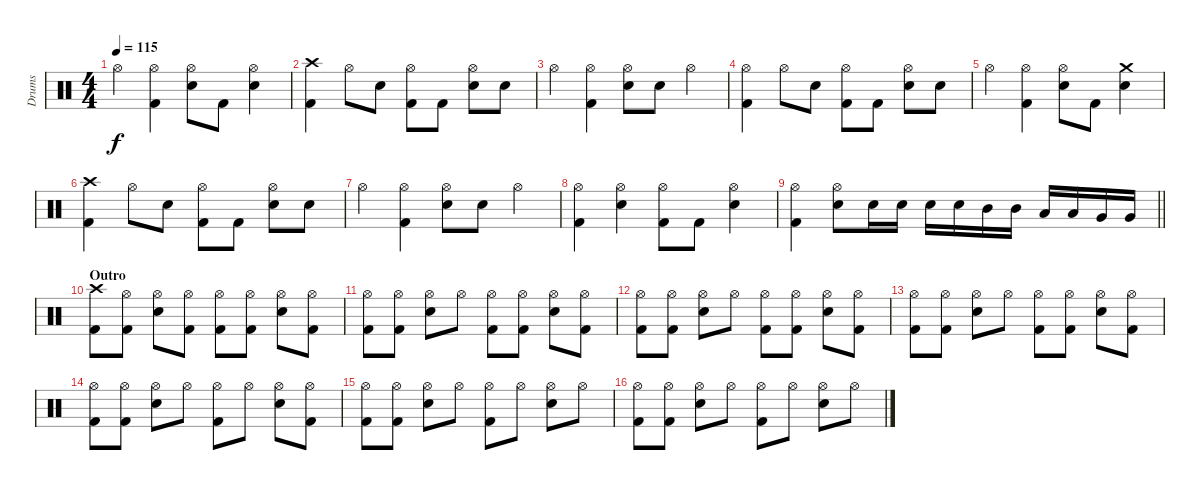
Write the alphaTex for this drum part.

\track ("Drums" "Drums") {instrument percussion}
\staff {score}
\articulation defaults
\ts (4 4)
\tempo 115
\clef neutral
\ks c "Hi-Hat (open)".4{dy f}
("Hi-Hat (open)" "Kick (hit) 2").4 ("Hi-Hat (open)" "Electric Snare (hit)").8 "Kick (hit) 2".8 ("Hi-Hat (open)" "Electric Snare (hit)").4 |
("Crash high (hit)" "Kick (hit) 2").4 "Hi-Hat (open)".8 "Electric Snare (hit)".8 ("Hi-Hat (open)" "Kick (hit) 2").8 "Kick (hit) 2".8 ("Hi-Hat (open)" "Electric Snare (hit)").8 "Electric Snare (hit)".8 |
"Hi-Hat (open)".4 ("Hi-Hat (open)" "Kick (hit) 2").4 ("Hi-Hat (open)" "Electric Snare (hit)").8 "Electric Snare (hit)".8 "Hi-Hat (open)".4 |
("Hi-Hat (open)" "Kick (hit) 2").4 "Hi-Hat (open)".8 "Electric Snare (hit)".8 ("Hi-Hat (open)" "Kick (hit) 2").8 "Kick (hit) 2".8 ("Hi-Hat (open)" "Electric Snare (hit)").8 "Electric Snare (hit)".8 |
"Hi-Hat (open)".4 ("Hi-Hat (open)" "Kick (hit) 2").4 ("Hi-Hat (open)" "Electric Snare (hit)").8 "Kick (hit) 2".8 ("Crash medium (hit)" "Electric Snare (hit)").4 |
("Crash high (hit)" "Kick (hit) 2").4 "Hi-Hat (open)".8 "Electric Snare (hit)".8 ("Hi-Hat (open)" "Kick (hit) 2").8 "Kick (hit) 2".8 ("Hi-Hat (open)" "Electric Snare (hit)").8 "Electric Snare (hit)".8 |
"Hi-Hat (open)".4 ("Hi-Hat (open)" "Kick (hit) 2").4 ("Hi-Hat (open)" "Electric Snare (hit)").8 "Electric Snare (hit)".8 "Hi-Hat (open)".4 |
("Hi-Hat (open)" "Kick (hit) 2").4 ("Hi-Hat (open)" "Electric Snare (hit)").4 ("Hi-Hat (open)" "Kick (hit) 2").8 "Kick (hit) 2".8 ("Hi-Hat (open)" "Electric Snare (hit)").4 |
\barLineRight lightlight
("Hi-Hat (open)" "Kick (hit) 2").4 ("Hi-Hat (open)" "Electric Snare (hit)").8 "Electric Snare (hit)".16 "Electric Snare (hit)".16 "Electric Snare (hit)".16 "Electric Snare (hit)".16 "Mid Tom (hit)".16 "Mid Tom (hit)".16 "Low Tom (hit)".16 "Low Tom (hit)".16 "Very Low Tom (hit)".16 "Very Low Tom (hit)".16 |
\section ("" "Outro")
("Crash high (hit)" "Kick (hit) 2").8 ("Hi-Hat (open)" "Kick (hit) 2").8 ("Hi-Hat (open)" "Electric Snare (hit)").8 ("Hi-Hat (open)" "Kick (hit) 2").8 ("Hi-Hat (open)" "Kick (hit) 2").8 ("Hi-Hat (open)" "Kick (hit) 2").8 ("Hi-Hat (open)" "Electric Snare (hit)").8 ("Hi-Hat (open)" "Kick (hit) 2").8 |
("Hi-Hat (open)" "Kick (hit) 2").8 ("Hi-Hat (open)" "Kick (hit) 2").8 ("Hi-Hat (open)" "Electric Snare (hit)").8 "Hi-Hat (open)".8 ("Hi-Hat (open)" "Kick (hit) 2").8 ("Hi-Hat (open)" "Kick (hit) 2").8 ("Hi-Hat (open)" "Electric Snare (hit)").8 ("Hi-Hat (open)" "Kick (hit) 2").8 |
("Hi-Hat (open)" "Kick (hit) 2").8 ("Hi-Hat (open)" "Kick (hit) 2").8 ("Hi-Hat (open)" "Electric Snare (hit)").8 "Hi-Hat (open)".8 ("Hi-Hat (open)" "Kick (hit) 2").8 ("Hi-Hat (open)" "Kick (hit) 2").8 ("Hi-Hat (open)" "Electric Snare (hit)").8 ("Hi-Hat (open)" "Kick (hit) 2").8 |
("Hi-Hat (open)" "Kick (hit) 2").8 ("Hi-Hat (open)" "Kick (hit) 2").8 ("Hi-Hat (open)" "Electric Snare (hit)").8 "Hi-Hat (open)".8 ("Hi-Hat (open)" "Kick (hit) 2").8 ("Hi-Hat (open)" "Kick (hit) 2").8 ("Hi-Hat (open)" "Electric Snare (hit)").8 ("Hi-Hat (open)" "Kick (hit) 2").8 |
("Hi-Hat (open)" "Kick (hit) 2").8 ("Hi-Hat (open)" "Kick (hit) 2").8 ("Hi-Hat (open)" "Electric Snare (hit)").8 "Hi-Hat (open)".8 ("Hi-Hat (open)" "Kick (hit) 2").8 "Hi-Hat (open)".8 ("Hi-Hat (open)" "Electric Snare (hit)").8 ("Hi-Hat (open)" "Kick (hit) 2").8 |
("Hi-Hat (open)" "Kick (hit) 2").8 ("Hi-Hat (open)" "Kick (hit) 2").8 ("Hi-Hat (open)" "Electric Snare (hit)").8 "Hi-Hat (open)".8 ("Hi-Hat (open)" "Kick (hit) 2").8 "Hi-Hat (open)".8 ("Hi-Hat (open)" "Electric Snare (hit)").8 "Hi-Hat (open)".8 |
("Hi-Hat (open)" "Kick (hit) 2").8 ("Hi-Hat (open)" "Kick (hit) 2").8 ("Hi-Hat (open)" "Electric Snare (hit)").8 "Hi-Hat (open)".8 ("Hi-Hat (open)" "Kick (hit) 2").8 "Hi-Hat (open)".8 ("Hi-Hat (open)" "Electric Snare (hit)").8 "Hi-Hat (open)".8
